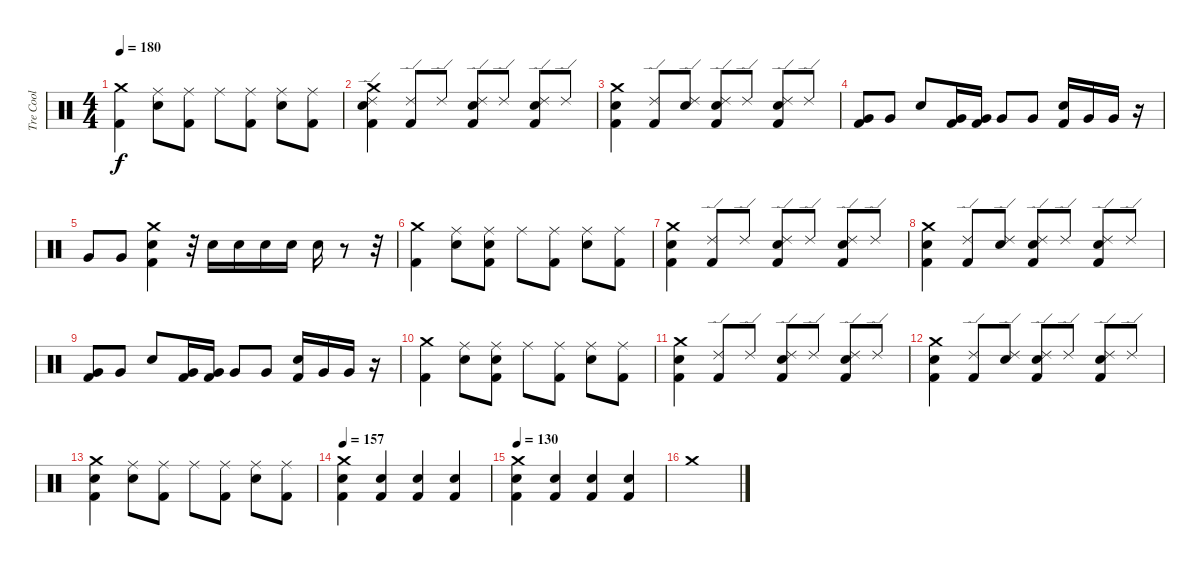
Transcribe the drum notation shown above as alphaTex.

\track ("Tre Cool" "Tre Cool") {instrument percussion}
\staff {score}
\articulation defaults
\ts (4 4)
\tempo 180
\clef neutral
\ks c
("Crash medium (hit)" "Kick (hit) 2").4{dy f} ("Ride (middle)" "Snare (hit) 2").8 ("Ride (middle)" "Kick (hit) 2").8 "Ride (middle)".8 ("Ride (middle)" "Kick (hit) 2").8 ("Ride (middle)" "Snare (hit) 2").8 ("Ride (middle)" "Kick (hit) 2").8 |
("Crash medium (hit)" "Ride (edge) 2" "Snare (hit) 2" "Kick (hit) 2").4 ("Ride (edge) 2" "Kick (hit) 2").8 "Ride (edge) 2".8 ("Ride (edge) 2" "Snare (hit) 2" "Kick (hit) 2").8 "Ride (edge) 2".8 ("Ride (edge) 2" "Snare (hit) 2" "Kick (hit) 2").8 "Ride (edge) 2".8 |
("Crash medium (hit)" "Snare (hit) 2" "Kick (hit) 2").4 ("Ride (edge) 2" "Kick (hit) 2").8 ("Ride (edge) 2" "Snare (hit) 2").8 ("Ride (edge) 2" "Snare (hit) 2" "Kick (hit) 2").8 "Ride (edge) 2".8 ("Ride (edge) 2" "Snare (hit) 2" "Kick (hit) 2").8 "Ride (edge) 2".8 |
("Very Low Tom (hit)" "Kick (hit) 2").8 "Very Low Tom (hit)".8 "Snare (hit) 2".8 ("Very Low Tom (hit)" "Kick (hit) 2").16 ("Very Low Tom (hit)" "Kick (hit) 2").16 "Very Low Tom (hit)".8 "Very Low Tom (hit)".8 ("Snare (hit) 2" "Kick (hit) 2").16 "Very Low Tom (hit)".16 "Very Low Tom (hit)".16 r.16 |
"Very Low Tom (hit)".8 "Very Low Tom (hit)".8 ("Crash medium (hit)" "Snare (hit) 2" "Kick (hit) 2").4 r.32 "Snare (hit) 2".16 "Snare (hit) 2".16 "Snare (hit) 2".16 "Snare (hit) 2".16 "Snare (hit) 2".16 r.8 r.32 |
("Crash medium (hit)" "Kick (hit) 2").4 ("Ride (middle)" "Snare (hit) 2").8 ("Ride (middle)" "Snare (hit) 2" "Kick (hit) 2").8 "Ride (middle)".8 ("Ride (middle)" "Kick (hit) 2").8 ("Ride (middle)" "Snare (hit) 2").8 ("Ride (middle)" "Kick (hit) 2").8 |
("Crash medium (hit)" "Snare (hit) 2" "Kick (hit) 2").4 ("Ride (edge) 2" "Kick (hit) 2").8 "Ride (edge) 2".8 ("Ride (edge) 2" "Snare (hit) 2" "Kick (hit) 2").8 "Ride (edge) 2".8 ("Ride (edge) 2" "Snare (hit) 2" "Kick (hit) 2").8 "Ride (edge) 2".8 |
("Crash medium (hit)" "Snare (hit) 2" "Kick (hit) 2").4 ("Ride (edge) 2" "Kick (hit) 2").8 ("Ride (edge) 2" "Snare (hit) 2").8 ("Ride (edge) 2" "Snare (hit) 2" "Kick (hit) 2").8 "Ride (edge) 2".8 ("Ride (edge) 2" "Snare (hit) 2" "Kick (hit) 2").8 "Ride (edge) 2".8 |
("Very Low Tom (hit)" "Kick (hit) 2").8 "Very Low Tom (hit)".8 "Snare (hit) 2".8 ("Very Low Tom (hit)" "Kick (hit) 2").16 ("Very Low Tom (hit)" "Kick (hit) 2").16 "Very Low Tom (hit)".8 "Very Low Tom (hit)".8 ("Snare (hit) 2" "Kick (hit) 2").16 "Very Low Tom (hit)".16 "Very Low Tom (hit)".16 r.16 |
("Crash medium (hit)" "Kick (hit) 2").4 ("Ride (middle)" "Snare (hit) 2").8 ("Ride (middle)" "Snare (hit) 2" "Kick (hit) 2").8 "Ride (middle)".8 ("Ride (middle)" "Kick (hit) 2").8 ("Ride (middle)" "Snare (hit) 2").8 ("Ride (middle)" "Kick (hit) 2").8 |
("Crash medium (hit)" "Snare (hit) 2" "Kick (hit) 2").4 ("Ride (edge) 2" "Kick (hit) 2").8 "Ride (edge) 2".8 ("Ride (edge) 2" "Snare (hit) 2" "Kick (hit) 2").8 "Ride (edge) 2".8 ("Ride (edge) 2" "Snare (hit) 2" "Kick (hit) 2").8 "Ride (edge) 2".8 |
("Crash medium (hit)" "Snare (hit) 2" "Kick (hit) 2").4 ("Ride (edge) 2" "Kick (hit) 2").8 ("Ride (edge) 2" "Snare (hit) 2").8 ("Ride (edge) 2" "Snare (hit) 2" "Kick (hit) 2").8 "Ride (edge) 2".8 ("Ride (edge) 2" "Snare (hit) 2" "Kick (hit) 2").8 "Ride (edge) 2".8 |
("Crash medium (hit)" "Snare (hit) 2" "Kick (hit) 2").4 ("Ride (middle)" "Snare (hit) 2").8 ("Ride (middle)" "Kick (hit) 2").8 "Ride (middle)".8 ("Ride (middle)" "Kick (hit) 2").8 ("Ride (middle)" "Snare (hit) 2").8 ("Ride (middle)" "Kick (hit) 2").8 |
\tempo 157
("Crash medium (hit)" "Snare (hit) 2" "Kick (hit) 2").4 ("Snare (hit) 2" "Kick (hit) 2").4 ("Snare (hit) 2" "Kick (hit) 2").4 ("Snare (hit) 2" "Kick (hit) 2").4 |
\tempo 130
("Crash medium (hit)" "Snare (hit) 2" "Kick (hit) 2").4 ("Snare (hit) 2" "Kick (hit) 2").4 ("Snare (hit) 2" "Kick (hit) 2").4 ("Snare (hit) 2" "Kick (hit) 2").4 |
"Crash medium (hit)".1
